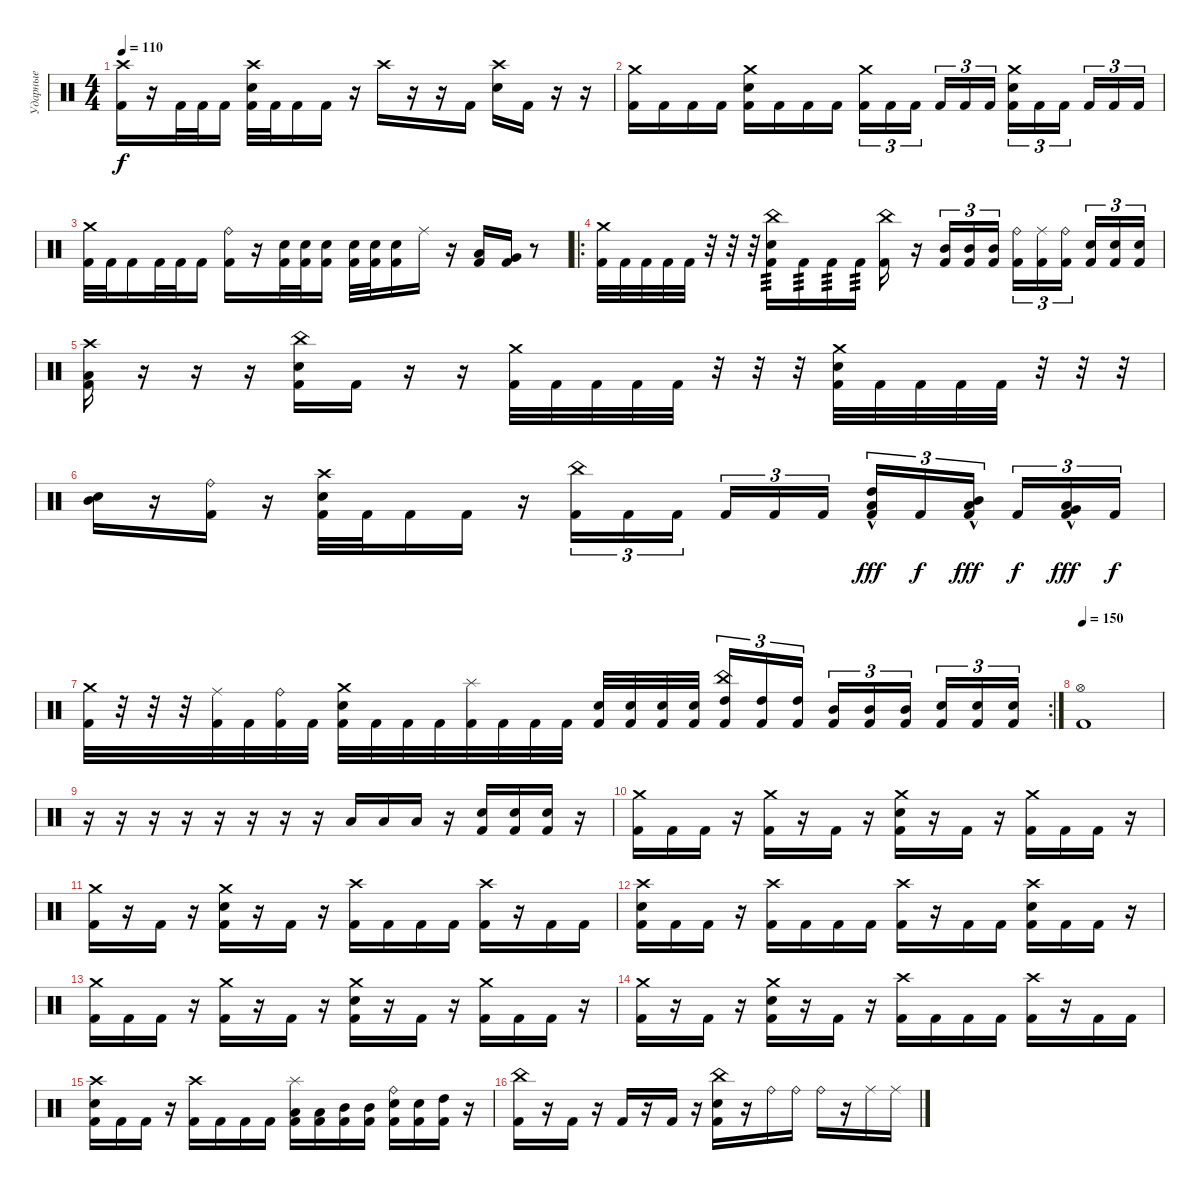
\track ("Ударные" "Ударные") {instrument percussion}
\staff {score}
\articulation defaults
\ts (4 4)
\tempo 110
\clef neutral
\ks c
("Crash high (hit)" "Kick (hit) 2").16{dy f} r.16 "Kick (hit) 2".32 "Kick (hit) 2".32 "Kick (hit) 2".16 ("Crash high (hit)" "Electric Snare (hit)" "Kick (hit) 2").32 "Kick (hit) 2".32 "Kick (hit) 2".16 "Kick (hit) 2".16 r.16 "Crash high (hit)".16 r.16 r.16 "Kick (hit) 2".16 ("Crash high (hit)" "Electric Snare (hit)").16 "Kick (hit) 2".16 r.16 r.16 |
("Crash medium (hit)" "Kick (hit) 2").16 "Kick (hit) 2".16 "Kick (hit) 2".16 "Kick (hit) 2".16 ("Crash medium (hit)" "Electric Snare (hit)" "Kick (hit) 2").16 "Kick (hit) 2".16 "Kick (hit) 2".16 "Kick (hit) 2".16 ("Crash medium (hit)" "Kick (hit) 2").16{tu (3 2)} "Kick (hit) 2".16{tu (3 2)} "Kick (hit) 2".16{tu (3 2) beam splitsecondary} "Kick (hit) 2".16{tu (3 2)} "Kick (hit) 2".16{tu (3 2)} "Kick (hit) 2".16{tu (3 2)} ("Crash medium (hit)" "Electric Snare (hit)" "Kick (hit) 2").16{tu (3 2)} "Kick (hit) 2".16{tu (3 2)} "Kick (hit) 2".16{tu (3 2) beam splitsecondary} "Kick (hit) 2".16{tu (3 2)} "Kick (hit) 2".16{tu (3 2)} "Kick (hit) 2".16{tu (3 2)} |
("Crash medium (hit)" "Kick (hit) 2").32 "Kick (hit) 2".32 "Kick (hit) 2".16 "Kick (hit) 2".32 "Kick (hit) 2".32 "Kick (hit) 2".16 ("Ride (bell)" "Kick (hit) 2").16 r.16 ("Electric Snare (hit)" "Kick (hit) 2").32 ("Electric Snare (hit)" "Kick (hit) 2").32 ("Electric Snare (hit)" "Kick (hit) 2").16 ("Electric Snare (hit)" "Kick (hit) 2").32 ("Electric Snare (hit)" "Kick (hit) 2").32 ("Electric Snare (hit)" "Kick (hit) 2").16 "Ride (middle)".16 r.16 ("Low Tom (hit)" "Kick (hit) 2").16 ("Very Low Tom (hit)" "Kick (hit) 2").16 r.8 |
\ro
("Crash medium (hit)" "Kick (hit) 2").32 "Kick (hit) 2".32 "Kick (hit) 2".32 "Kick (hit) 2".32 "Kick (hit) 2".32 r.32 r.32 r.32 ("China (hit)" "Electric Snare (hit)" "Kick (hit) 2").16{tp 3} "Kick (hit) 2".16{tp 3} "Kick (hit) 2".16{tp 3} "Kick (hit) 2".16{tp 3} ("China (hit)" "Kick (hit) 2").16 r.16 ("Mid Tom (hit)" "Kick (hit) 2").16{tu (3 2)} ("Mid Tom (hit)" "Kick (hit) 2").16{tu (3 2)} ("Mid Tom (hit)" "Kick (hit) 2").16{tu (3 2)} ("Ride (bell)" "Kick (hit) 2").16{tu (3 2)} ("Ride (middle)" "Kick (hit) 2").16{tu (3 2)} ("Ride (bell)" "Kick (hit) 2").16{tu (3 2) beam splitsecondary} ("Electric Snare (hit)" "Kick (hit) 2").16{tu (3 2)} ("Electric Snare (hit)" "Kick (hit) 2").16{tu (3 2)} ("Electric Snare (hit)" "Kick (hit) 2").16{tu (3 2)} |
("Crash high (hit)" "Low Tom (hit)" "Kick (hit) 2").16 r.16 r.16 r.16 ("China (hit)" "Electric Snare (hit)" "Kick (hit) 2").16 "Kick (hit) 2".16 r.16 r.16 ("Crash medium (hit)" "Kick (hit) 2").32 "Kick (hit) 2".32 "Kick (hit) 2".32 "Kick (hit) 2".32 "Kick (hit) 2".32 r.32 r.32 r.32 ("Crash medium (hit)" "Electric Snare (hit)" "Kick (hit) 2").32 "Kick (hit) 2".32 "Kick (hit) 2".32 "Kick (hit) 2".32 "Kick (hit) 2".32 r.32 r.32 r.32 |
("Electric Snare (hit)" "Mid Tom (hit)").16 r.16 ("Ride (bell)" "Kick (hit) 2").16 r.16 ("Crash high (hit)" "Electric Snare (hit)" "Kick (hit) 2").32 "Kick (hit) 2".32 "Kick (hit) 2".16 "Kick (hit) 2".16 r.16 ("China (hit)" "Kick (hit) 2").16{tu (3 2)} "Kick (hit) 2".16{tu (3 2)} "Kick (hit) 2".16{tu (3 2) beam splitsecondary} "Kick (hit) 2".16{tu (3 2)} "Kick (hit) 2".16{tu (3 2)} "Kick (hit) 2".16{tu (3 2)} ("High Tom (hit)"{hac} "Low Tom (hit)"{hac} "Kick (hit) 2").16{tu (3 2) dy fff} "Kick (hit) 2".16{tu (3 2) dy f} ("Mid Tom (hit)"{hac} "Low Tom (hit)"{hac} "Kick (hit) 2").16{tu (3 2) dy fff beam splitsecondary} "Kick (hit) 2".16{tu (3 2) dy f} ("Very Low Tom (hit)"{hac} "Low Tom (hit)"{hac} "Kick (hit) 2").16{tu (3 2) dy fff} "Kick (hit) 2".16{tu (3 2) dy f} |
\rc 2
("Crash medium (hit)" "Kick (hit) 2").32 r.32 r.32 r.32 ("Ride (middle)" "Kick (hit) 2").32 "Kick (hit) 2".32 ("Ride (bell)" "Kick (hit) 2").32 "Kick (hit) 2".32 ("Crash medium (hit)" "Electric Snare (hit)" "Kick (hit) 2").32 "Kick (hit) 2".32 "Kick (hit) 2".32 "Kick (hit) 2".32 ("Splash (hit)" "Kick (hit) 2").32 "Kick (hit) 2".32 "Kick (hit) 2".32 "Kick (hit) 2".32 ("Electric Snare (hit)" "Kick (hit) 2").32 ("Electric Snare (hit)" "Kick (hit) 2").32 ("Electric Snare (hit)" "Kick (hit) 2").32 ("Electric Snare (hit)" "Kick (hit) 2").32{beam splitsecondary} ("China (hit)" "High Tom (hit)" "Kick (hit) 2").16{tu (3 2)} ("High Tom (hit)" "Kick (hit) 2").16{tu (3 2)} ("High Tom (hit)" "Kick (hit) 2").16{tu (3 2)} ("Mid Tom (hit)" "Kick (hit) 2").16{tu (3 2)} ("Mid Tom (hit)" "Kick (hit) 2").16{tu (3 2)} ("Mid Tom (hit)" "Kick (hit) 2").16{tu (3 2) beam splitsecondary} ("Electric Snare (hit)" "Kick (hit) 2").16{tu (3 2)} ("Electric Snare (hit)" "Kick (hit) 2").16{tu (3 2)} ("Electric Snare (hit)" "Kick (hit) 2").16{tu (3 2)} |
\tempo 150
("Hi-Hat (open)" "Kick (hit) 2").1 |
r.16 r.16 r.16 r.16 r.16 r.16 r.16 r.16 "Low Tom (hit)".16 "Low Tom (hit)".16 "Low Tom (hit)".16 r.16 ("Electric Snare (hit)" "Kick (hit) 2").16 ("Electric Snare (hit)" "Kick (hit) 2").16 ("Electric Snare (hit)" "Kick (hit) 2").16 r.16 |
("Crash medium (hit)" "Kick (hit) 2").16 "Kick (hit) 2".16 "Kick (hit) 2".16 r.16 ("Crash medium (hit)" "Kick (hit) 2").16 r.16 "Kick (hit) 2".16 r.16 ("Crash medium (hit)" "Electric Snare (hit)" "Kick (hit) 2").16 r.16 "Kick (hit) 2".16 r.16 ("Crash medium (hit)" "Kick (hit) 2").16 "Kick (hit) 2".16 "Kick (hit) 2".16 r.16 |
("Crash medium (hit)" "Kick (hit) 2").16 r.16 "Kick (hit) 2".16 r.16 ("Crash medium (hit)" "Electric Snare (hit)" "Kick (hit) 2").16 r.16 "Kick (hit) 2".16 r.16 ("Crash high (hit)" "Kick (hit) 2").16 "Kick (hit) 2".16 "Kick (hit) 2".16 "Kick (hit) 2".16 ("Crash high (hit)" "Kick (hit) 2").16 r.16 "Kick (hit) 2".16 "Kick (hit) 2".16 |
("Crash high (hit)" "Electric Snare (hit)" "Kick (hit) 2").16 "Kick (hit) 2".16 "Kick (hit) 2".16 r.16 ("Crash high (hit)" "Kick (hit) 2").16 "Kick (hit) 2".16 "Kick (hit) 2".16 "Kick (hit) 2".16 ("Crash high (hit)" "Kick (hit) 2").16 r.16 "Kick (hit) 2".16 "Kick (hit) 2".16 ("Crash high (hit)" "Electric Snare (hit)" "Kick (hit) 2").16 "Kick (hit) 2".16 "Kick (hit) 2".16 r.16 |
("Crash medium (hit)" "Kick (hit) 2").16 "Kick (hit) 2".16 "Kick (hit) 2".16 r.16 ("Crash medium (hit)" "Kick (hit) 2").16 r.16 "Kick (hit) 2".16 r.16 ("Crash medium (hit)" "Electric Snare (hit)" "Kick (hit) 2").16 r.16 "Kick (hit) 2".16 r.16 ("Crash medium (hit)" "Kick (hit) 2").16 "Kick (hit) 2".16 "Kick (hit) 2".16 r.16 |
("Crash medium (hit)" "Kick (hit) 2").16 r.16 "Kick (hit) 2".16 r.16 ("Crash medium (hit)" "Electric Snare (hit)" "Kick (hit) 2").16 r.16 "Kick (hit) 2".16 r.16 ("Crash high (hit)" "Kick (hit) 2").16 "Kick (hit) 2".16 "Kick (hit) 2".16 "Kick (hit) 2".16 ("Crash high (hit)" "Kick (hit) 2").16 r.16 "Kick (hit) 2".16 "Kick (hit) 2".16 |
("Crash high (hit)" "Electric Snare (hit)" "Kick (hit) 2").16 "Kick (hit) 2".16 "Kick (hit) 2".16 r.16 ("Crash high (hit)" "Kick (hit) 2").16 "Kick (hit) 2".16 "Kick (hit) 2".16 "Kick (hit) 2".16 ("Splash (hit)" "Low Tom (hit)" "Kick (hit) 2").16 ("Low Tom (hit)" "Kick (hit) 2").16 ("Mid Tom (hit)" "Kick (hit) 2").16 ("Mid Tom (hit)" "Kick (hit) 2").16 ("Ride (bell)" "Electric Snare (hit)" "Kick (hit) 2").16 ("Electric Snare (hit)" "Kick (hit) 2").16 ("High Tom (hit)" "Kick (hit) 2").16 r.16 |
("China (hit)" "Kick (hit) 2").16 r.16 "Kick (hit) 2".16 r.16 "Kick (hit) 2".16 r.16 "Kick (hit) 2".16 r.16 ("China (hit)" "Electric Snare (hit)" "Kick (hit) 2").16 r.16 "Ride (bell)".16 "Ride (bell)".16 "Ride (bell)".16 r.16 "Ride (middle)".16 "Ride (middle)".16
